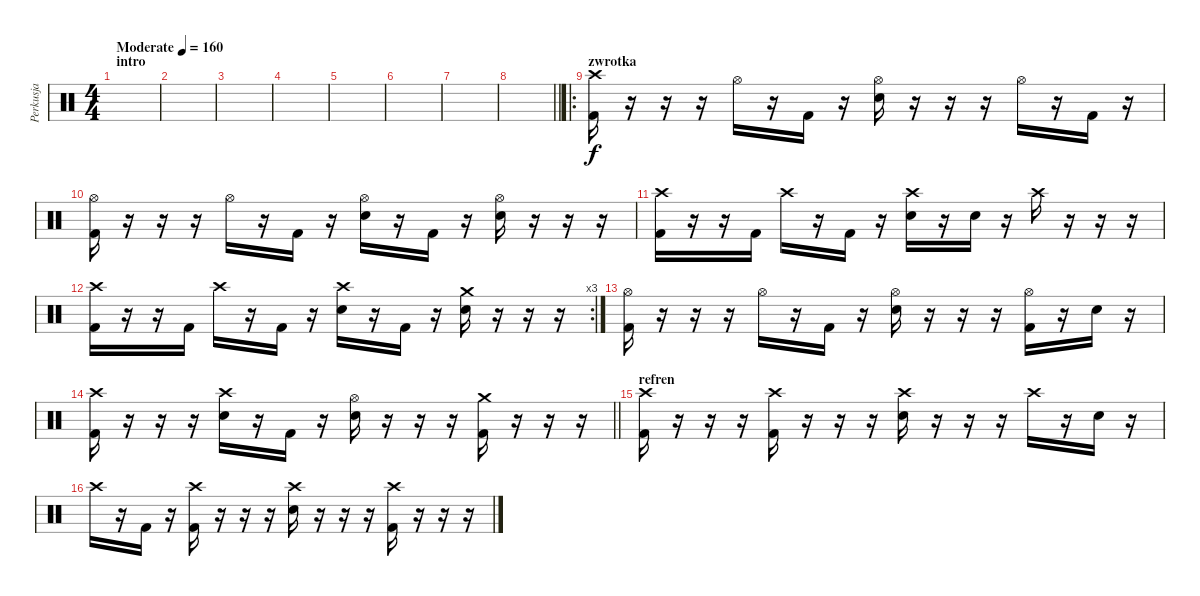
\track ("Perkusja" "Perkusja") {instrument percussion}
\staff {score}
\articulation defaults
\ts (4 4)
\section ("" "intro")
\tempo (160 "Moderate")
\clef neutral
\ks c
|
|
|
|
|
|
|
\barLineRight lightlight
|
\ro
\section ("" "zwrotka")
("Crash high (hit)" "Kick (hit) 2").16 r.16 r.16 r.16 "Hi-Hat (open)".16 r.16 "Kick (hit) 2".16 r.16 ("Hi-Hat (open)" "Electric Snare (hit)").16 r.16 r.16 r.16 "Hi-Hat (open)".16 r.16 "Kick (hit) 2".16 r.16 |
("Hi-Hat (open)" "Kick (hit) 2").16 r.16 r.16 r.16 "Hi-Hat (open)".16 r.16 "Kick (hit) 2".16 r.16 ("Hi-Hat (open)" "Electric Snare (hit)").16 r.16 "Kick (hit) 2".16 r.16 ("Hi-Hat (open)" "Electric Snare (hit)").16 r.16 r.16 r.16 |
("Crash high (hit)" "Kick (hit) 2").16 r.16 r.16 "Kick (hit) 2".16 "Crash high (hit)".16 r.16 "Kick (hit) 2".16 r.16 ("Crash high (hit)" "Electric Snare (hit)").16 r.16 "Electric Snare (hit)".16 r.16 "Crash high (hit)".16 r.16 r.16 r.16 |
\rc 3
("Crash high (hit)" "Kick (hit) 2").16 r.16 r.16 "Kick (hit) 2".16 "Crash high (hit)".16 r.16 "Kick (hit) 2".16 r.16 ("Crash high (hit)" "Electric Snare (hit)").16 r.16 "Kick (hit) 2".16 r.16 ("Crash medium (hit)" "Electric Snare (hit)").16 r.16 r.16 r.16 |
("Hi-Hat (open)" "Kick (hit) 2").16 r.16 r.16 r.16 "Hi-Hat (open)".16 r.16 "Kick (hit) 2".16 r.16 ("Hi-Hat (open)" "Electric Snare (hit)").16 r.16 r.16 r.16 ("Hi-Hat (open)" "Kick (hit) 2").16 r.16 "Electric Snare (hit)".16 r.16 |
\barLineRight lightlight
("Crash high (hit)" "Kick (hit) 2").16 r.16 r.16 r.16 ("Crash high (hit)" "Electric Snare (hit)").16 r.16 "Kick (hit) 2".16 r.16 ("Hi-Hat (open)" "Electric Snare (hit)").16 r.16 r.16 r.16 ("Crash medium (hit)" "Kick (hit) 2").16 r.16 r.16 r.16 |
\section ("" "refren")
("Crash high (hit)" "Kick (hit) 2").16 r.16 r.16 r.16 ("Crash high (hit)" "Kick (hit) 2").16 r.16 r.16 r.16 ("Crash high (hit)" "Electric Snare (hit)").16 r.16 r.16 r.16 "Crash high (hit)".16 r.16 "Electric Snare (hit)".16 r.16 |
"Crash high (hit)".16 r.16 "Kick (hit) 2".16 r.16 ("Crash high (hit)" "Kick (hit) 2").16 r.16 r.16 r.16 ("Crash high (hit)" "Electric Snare (hit)").16 r.16 r.16 r.16 ("Crash high (hit)" "Kick (hit) 2").16 r.16 r.16 r.16
